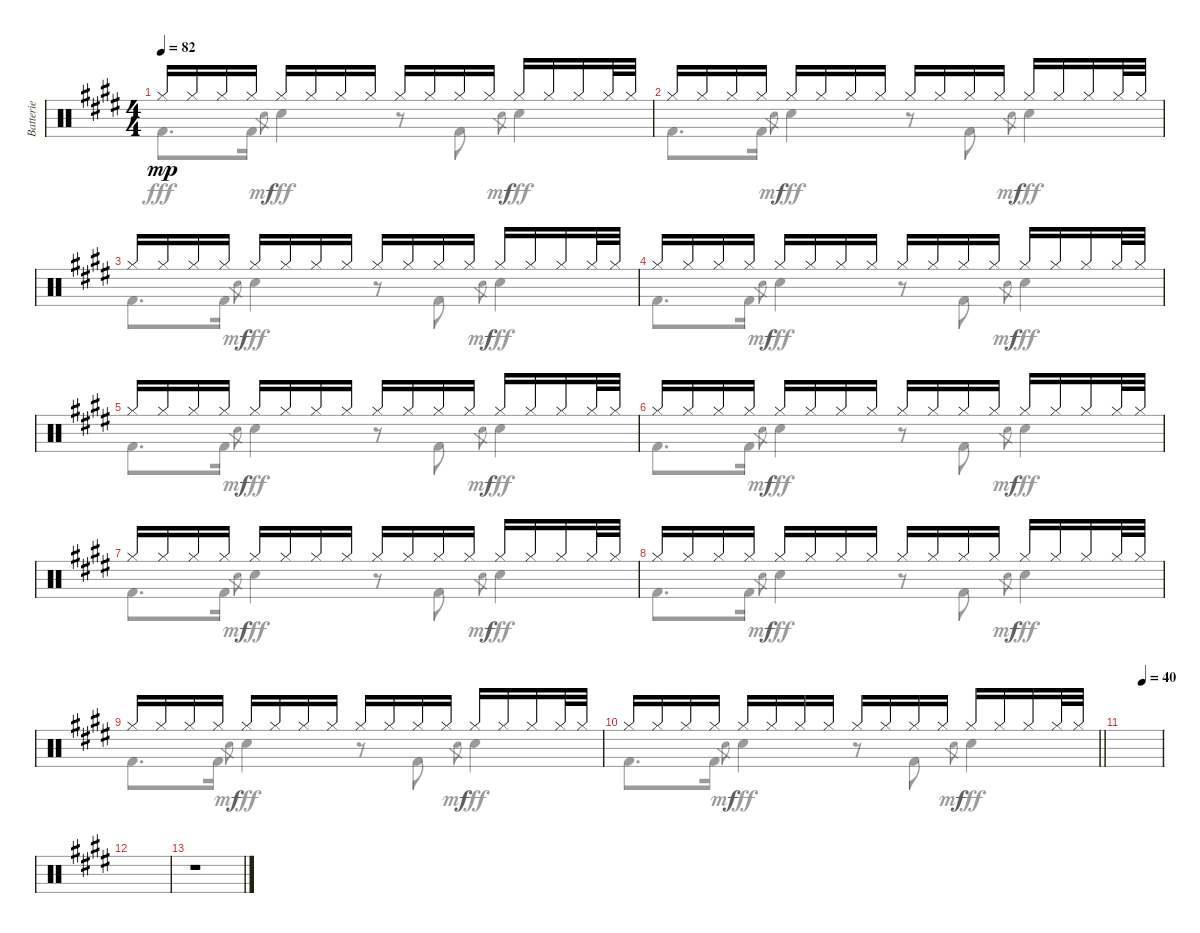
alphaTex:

\track ("Batterie" "Batterie") {instrument percussion}
\staff {score}
\articulation defaults
\voice
\ts (4 4)
\tempo 82
\clef neutral
\ks e "Hi-Hat (closed)".16{dy mp} "Hi-Hat (closed)".16 "Hi-Hat (closed)".16 "Hi-Hat (closed)".16 "Hi-Hat (closed)".16 "Hi-Hat (closed)".16 "Hi-Hat (closed)".16 "Hi-Hat (closed)".16 "Hi-Hat (closed)".16 "Hi-Hat (closed)".16 "Hi-Hat (closed)".16 "Hi-Hat (closed)".16 "Hi-Hat (closed)".16 "Hi-Hat (closed)".16 "Hi-Hat (closed)".16 "Hi-Hat (closed)".32 "Hi-Hat (closed)".32
|
"Hi-Hat (closed)".16 "Hi-Hat (closed)".16 "Hi-Hat (closed)".16 "Hi-Hat (closed)".16 "Hi-Hat (closed)".16 "Hi-Hat (closed)".16 "Hi-Hat (closed)".16 "Hi-Hat (closed)".16 "Hi-Hat (closed)".16 "Hi-Hat (closed)".16 "Hi-Hat (closed)".16 "Hi-Hat (closed)".16 "Hi-Hat (closed)".16 "Hi-Hat (closed)".16 "Hi-Hat (closed)".16 "Hi-Hat (closed)".32 "Hi-Hat (closed)".32 |
"Hi-Hat (closed)".16 "Hi-Hat (closed)".16 "Hi-Hat (closed)".16 "Hi-Hat (closed)".16 "Hi-Hat (closed)".16 "Hi-Hat (closed)".16 "Hi-Hat (closed)".16 "Hi-Hat (closed)".16 "Hi-Hat (closed)".16 "Hi-Hat (closed)".16 "Hi-Hat (closed)".16 "Hi-Hat (closed)".16 "Hi-Hat (closed)".16 "Hi-Hat (closed)".16 "Hi-Hat (closed)".16 "Hi-Hat (closed)".32 "Hi-Hat (closed)".32 |
"Hi-Hat (closed)".16 "Hi-Hat (closed)".16 "Hi-Hat (closed)".16 "Hi-Hat (closed)".16 "Hi-Hat (closed)".16 "Hi-Hat (closed)".16 "Hi-Hat (closed)".16 "Hi-Hat (closed)".16 "Hi-Hat (closed)".16 "Hi-Hat (closed)".16 "Hi-Hat (closed)".16 "Hi-Hat (closed)".16 "Hi-Hat (closed)".16 "Hi-Hat (closed)".16 "Hi-Hat (closed)".16 "Hi-Hat (closed)".32 "Hi-Hat (closed)".32 |
"Hi-Hat (closed)".16 "Hi-Hat (closed)".16 "Hi-Hat (closed)".16 "Hi-Hat (closed)".16 "Hi-Hat (closed)".16 "Hi-Hat (closed)".16 "Hi-Hat (closed)".16 "Hi-Hat (closed)".16 "Hi-Hat (closed)".16 "Hi-Hat (closed)".16 "Hi-Hat (closed)".16 "Hi-Hat (closed)".16 "Hi-Hat (closed)".16 "Hi-Hat (closed)".16 "Hi-Hat (closed)".16 "Hi-Hat (closed)".32 "Hi-Hat (closed)".32 |
"Hi-Hat (closed)".16 "Hi-Hat (closed)".16 "Hi-Hat (closed)".16 "Hi-Hat (closed)".16 "Hi-Hat (closed)".16 "Hi-Hat (closed)".16 "Hi-Hat (closed)".16 "Hi-Hat (closed)".16 "Hi-Hat (closed)".16 "Hi-Hat (closed)".16 "Hi-Hat (closed)".16 "Hi-Hat (closed)".16 "Hi-Hat (closed)".16 "Hi-Hat (closed)".16 "Hi-Hat (closed)".16 "Hi-Hat (closed)".32 "Hi-Hat (closed)".32 |
"Hi-Hat (closed)".16 "Hi-Hat (closed)".16 "Hi-Hat (closed)".16 "Hi-Hat (closed)".16 "Hi-Hat (closed)".16 "Hi-Hat (closed)".16 "Hi-Hat (closed)".16 "Hi-Hat (closed)".16 "Hi-Hat (closed)".16 "Hi-Hat (closed)".16 "Hi-Hat (closed)".16 "Hi-Hat (closed)".16 "Hi-Hat (closed)".16 "Hi-Hat (closed)".16 "Hi-Hat (closed)".16 "Hi-Hat (closed)".32 "Hi-Hat (closed)".32 |
"Hi-Hat (closed)".16 "Hi-Hat (closed)".16 "Hi-Hat (closed)".16 "Hi-Hat (closed)".16 "Hi-Hat (closed)".16 "Hi-Hat (closed)".16 "Hi-Hat (closed)".16 "Hi-Hat (closed)".16 "Hi-Hat (closed)".16 "Hi-Hat (closed)".16 "Hi-Hat (closed)".16 "Hi-Hat (closed)".16 "Hi-Hat (closed)".16 "Hi-Hat (closed)".16 "Hi-Hat (closed)".16 "Hi-Hat (closed)".32 "Hi-Hat (closed)".32 |
"Hi-Hat (closed)".16 "Hi-Hat (closed)".16 "Hi-Hat (closed)".16 "Hi-Hat (closed)".16 "Hi-Hat (closed)".16 "Hi-Hat (closed)".16 "Hi-Hat (closed)".16 "Hi-Hat (closed)".16 "Hi-Hat (closed)".16 "Hi-Hat (closed)".16 "Hi-Hat (closed)".16 "Hi-Hat (closed)".16 "Hi-Hat (closed)".16 "Hi-Hat (closed)".16 "Hi-Hat (closed)".16 "Hi-Hat (closed)".32 "Hi-Hat (closed)".32 |
\barLineRight lightlight "Hi-Hat (closed)".16 "Hi-Hat (closed)".16 "Hi-Hat (closed)".16 "Hi-Hat (closed)".16 "Hi-Hat (closed)".16 "Hi-Hat (closed)".16 "Hi-Hat (closed)".16 "Hi-Hat (closed)".16 "Hi-Hat (closed)".16 "Hi-Hat (closed)".16 "Hi-Hat (closed)".16 "Hi-Hat (closed)".16 "Hi-Hat (closed)".16 "Hi-Hat (closed)".16 "Hi-Hat (closed)".16 "Hi-Hat (closed)".32 "Hi-Hat (closed)".32
|
\tempo (40 0.5)
|
|
r.1
\voice
\clef neutral
\ottava regular
\simile none
\ks e "Kick (hit) 2".8{d dy fff} "Kick (hit) 2".16 "Hand Clap (hit)".8{gr dy mf} "Hand Clap (hit)".4{dy fff}
r.8 "Kick (hit) 2".8 "Hand Clap (hit)".8{gr dy mf} "Hand Clap (hit)".4{dy fff} |
"Kick (hit) 2".8{d} "Kick (hit) 2".16 "Hand Clap (hit)".8{gr dy mf} "Hand Clap (hit)".4{dy fff} r.8 "Kick (hit) 2".8 "Hand Clap (hit)".8{gr dy mf} "Hand Clap (hit)".4{dy fff} |
"Kick (hit) 2".8{d} "Kick (hit) 2".16 "Hand Clap (hit)".8{gr dy mf} "Hand Clap (hit)".4{dy fff} r.8 "Kick (hit) 2".8 "Hand Clap (hit)".8{gr dy mf} "Hand Clap (hit)".4{dy fff} |
"Kick (hit) 2".8{d} "Kick (hit) 2".16 "Hand Clap (hit)".8{gr dy mf} "Hand Clap (hit)".4{dy fff} r.8 "Kick (hit) 2".8 "Hand Clap (hit)".8{gr dy mf} "Hand Clap (hit)".4{dy fff} |
"Kick (hit) 2".8{d} "Kick (hit) 2".16 "Hand Clap (hit)".8{gr dy mf} "Hand Clap (hit)".4{dy fff} r.8 "Kick (hit) 2".8 "Hand Clap (hit)".8{gr dy mf} "Hand Clap (hit)".4{dy fff} |
"Kick (hit) 2".8{d} "Kick (hit) 2".16 "Hand Clap (hit)".8{gr dy mf} "Hand Clap (hit)".4{dy fff} r.8 "Kick (hit) 2".8 "Hand Clap (hit)".8{gr dy mf} "Hand Clap (hit)".4{dy fff} |
"Kick (hit) 2".8{d} "Kick (hit) 2".16 "Hand Clap (hit)".8{gr dy mf} "Hand Clap (hit)".4{dy fff} r.8 "Kick (hit) 2".8 "Hand Clap (hit)".8{gr dy mf} "Hand Clap (hit)".4{dy fff} |
"Kick (hit) 2".8{d} "Kick (hit) 2".16 "Hand Clap (hit)".8{gr dy mf} "Hand Clap (hit)".4{dy fff} r.8 "Kick (hit) 2".8 "Hand Clap (hit)".8{gr dy mf} "Hand Clap (hit)".4{dy fff} |
"Kick (hit) 2".8{d} "Kick (hit) 2".16 "Hand Clap (hit)".8{gr dy mf} "Hand Clap (hit)".4{dy fff} r.8 "Kick (hit) 2".8 "Hand Clap (hit)".8{gr dy mf} "Hand Clap (hit)".4{dy fff} |
\barLineRight lightlight "Kick (hit) 2".8{d} "Kick (hit) 2".16 "Hand Clap (hit)".8{gr dy mf} "Hand Clap (hit)".4{dy fff}
r.8 "Kick (hit) 2".8 "Hand Clap (hit)".8{gr dy mf} "Hand Clap (hit)".4{dy fff} |
|
|
